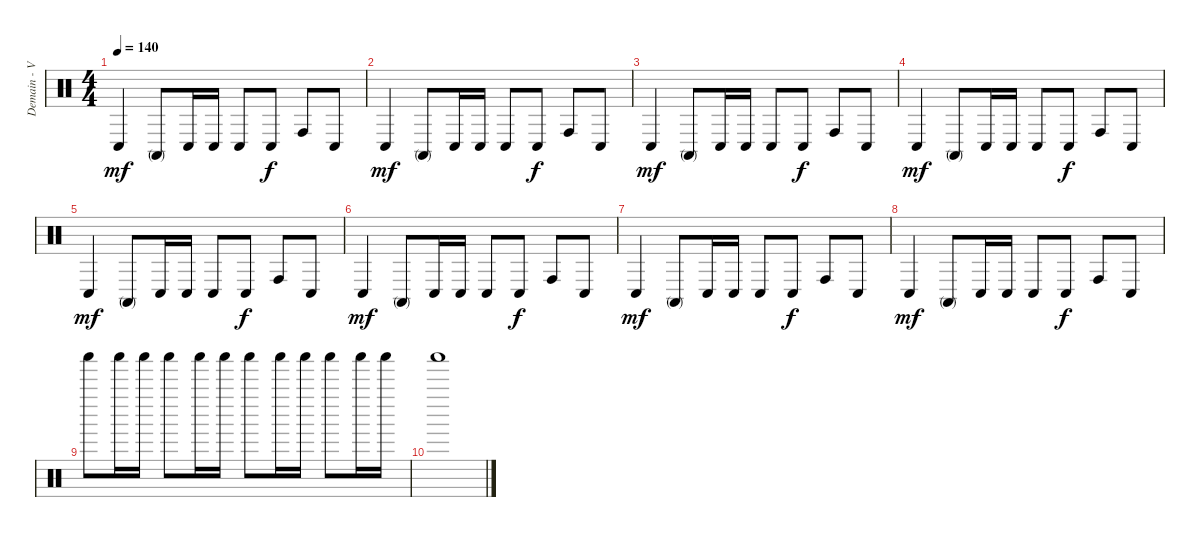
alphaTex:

\track ("Demain - Various Perc." "Demain - V") {instrument percussion}
\staff {score}
\articulation defaults
\ts (4 4)
\tempo 140
\clef neutral
\ks c "Conga low (hit)".4{dy mf} "Conga high (mute)".8 "Conga low (hit)".16 "Conga low (hit)".16 "Conga low (hit)".8 "Conga low (hit)".8{dy f} "Conga high (hit)".8 "Conga low (hit)".8
|
"Conga low (hit)".4{dy mf} "Conga high (mute)".8 "Conga low (hit)".16 "Conga low (hit)".16 "Conga low (hit)".8 "Conga low (hit)".8{dy f} "Conga high (hit)".8 "Conga low (hit)".8 |
"Conga low (hit)".4{dy mf} "Conga high (mute)".8 "Conga low (hit)".16 "Conga low (hit)".16 "Conga low (hit)".8 "Conga low (hit)".8{dy f} "Conga high (hit)".8 "Conga low (hit)".8 |
"Conga low (hit)".4{dy mf} "Conga high (mute)".8 "Conga low (hit)".16 "Conga low (hit)".16 "Conga low (hit)".8 "Conga low (hit)".8{dy f} "Conga high (hit)".8 "Conga low (hit)".8 |
"Conga low (hit)".4{dy mf} "Conga high (mute)".8 "Conga low (hit)".16 "Conga low (hit)".16 "Conga low (hit)".8 "Conga low (hit)".8{dy f} "Conga high (hit)".8 "Conga low (hit)".8 |
"Conga low (hit)".4{dy mf} "Conga high (mute)".8 "Conga low (hit)".16 "Conga low (hit)".16 "Conga low (hit)".8 "Conga low (hit)".8{dy f} "Conga high (hit)".8 "Conga low (hit)".8 |
"Conga low (hit)".4{dy mf} "Conga high (mute)".8 "Conga low (hit)".16 "Conga low (hit)".16 "Conga low (hit)".8 "Conga low (hit)".8{dy f} "Conga high (hit)".8 "Conga low (hit)".8 |
"Conga low (hit)".4{dy mf} "Conga high (mute)".8 "Conga low (hit)".16 "Conga low (hit)".16 "Conga low (hit)".8 "Conga low (hit)".8{dy f} "Conga high (hit)".8 "Conga low (hit)".8 |
"Shaker (hit)".8 "Shaker (hit)".16 "Shaker (hit)".16 "Shaker (hit)".8 "Shaker (hit)".16 "Shaker (hit)".16 "Shaker (hit)".8 "Shaker (hit)".16 "Shaker (hit)".16 "Shaker (hit)".8 "Shaker (hit)".16 "Shaker (hit)".16 |
"Shaker (hit)".1
